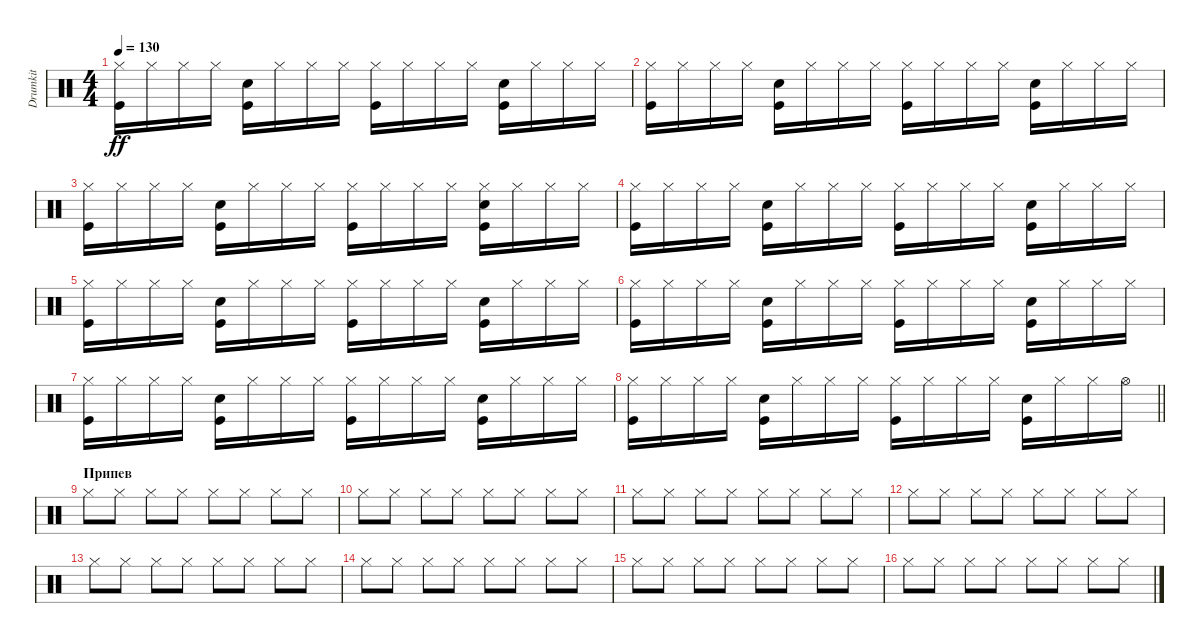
\track ("Drumkit" "Drumkit") {instrument percussion}
\staff {score}
\articulation defaults
\ts (4 4)
\tempo 130
\clef neutral
\ks c
("Hi-Hat (closed)" "Kick (hit)").16{dy ff} "Hi-Hat (closed)".16 "Hi-Hat (closed)".16 "Hi-Hat (closed)".16 ("Kick (hit)" "Snare (hit) 2").16 "Hi-Hat (closed)".16 "Hi-Hat (closed)".16 "Hi-Hat (closed)".16 ("Hi-Hat (closed)" "Kick (hit)").16 "Hi-Hat (closed)".16 "Hi-Hat (closed)".16 "Hi-Hat (closed)".16 ("Kick (hit)" "Snare (hit) 2").16 "Hi-Hat (closed)".16 "Hi-Hat (closed)".16 "Hi-Hat (closed)".16 |
("Hi-Hat (closed)" "Kick (hit)").16 "Hi-Hat (closed)".16 "Hi-Hat (closed)".16 "Hi-Hat (closed)".16 ("Kick (hit)" "Snare (hit) 2").16 "Hi-Hat (closed)".16 "Hi-Hat (closed)".16 "Hi-Hat (closed)".16 ("Hi-Hat (closed)" "Kick (hit)").16 "Hi-Hat (closed)".16 "Hi-Hat (closed)".16 "Hi-Hat (closed)".16 ("Snare (hit) 2" "Kick (hit)").16 "Hi-Hat (closed)".16 "Hi-Hat (closed)".16 "Hi-Hat (closed)".16 |
("Hi-Hat (closed)" "Kick (hit)").16 "Hi-Hat (closed)".16 "Hi-Hat (closed)".16 "Hi-Hat (closed)".16 ("Kick (hit)" "Snare (hit) 2").16 "Hi-Hat (closed)".16 "Hi-Hat (closed)".16 "Hi-Hat (closed)".16 ("Hi-Hat (closed)" "Kick (hit)").16 "Hi-Hat (closed)".16 "Hi-Hat (closed)".16 "Hi-Hat (closed)".16 ("Hi-Hat (closed)" "Kick (hit)" "Snare (hit) 2").16 "Hi-Hat (closed)".16 "Hi-Hat (closed)".16 "Hi-Hat (closed)".16 |
("Hi-Hat (closed)" "Kick (hit)").16 "Hi-Hat (closed)".16 "Hi-Hat (closed)".16 "Hi-Hat (closed)".16 ("Kick (hit)" "Snare (hit) 2").16 "Hi-Hat (closed)".16 "Hi-Hat (closed)".16 "Hi-Hat (closed)".16 ("Hi-Hat (closed)" "Kick (hit)").16 "Hi-Hat (closed)".16 "Hi-Hat (closed)".16 "Hi-Hat (closed)".16 ("Snare (hit) 2" "Kick (hit)").16 "Hi-Hat (closed)".16 "Hi-Hat (closed)".16 "Hi-Hat (closed)".16 |
("Hi-Hat (closed)" "Kick (hit)").16 "Hi-Hat (closed)".16 "Hi-Hat (closed)".16 "Hi-Hat (closed)".16 ("Kick (hit)" "Snare (hit) 2").16 "Hi-Hat (closed)".16 "Hi-Hat (closed)".16 "Hi-Hat (closed)".16 ("Hi-Hat (closed)" "Kick (hit)").16 "Hi-Hat (closed)".16 "Hi-Hat (closed)".16 "Hi-Hat (closed)".16 ("Kick (hit)" "Snare (hit) 2").16 "Hi-Hat (closed)".16 "Hi-Hat (closed)".16 "Hi-Hat (closed)".16 |
("Hi-Hat (closed)" "Kick (hit)").16 "Hi-Hat (closed)".16 "Hi-Hat (closed)".16 "Hi-Hat (closed)".16 ("Kick (hit)" "Snare (hit) 2").16 "Hi-Hat (closed)".16 "Hi-Hat (closed)".16 "Hi-Hat (closed)".16 ("Hi-Hat (closed)" "Kick (hit)").16 "Hi-Hat (closed)".16 "Hi-Hat (closed)".16 "Hi-Hat (closed)".16 ("Snare (hit) 2" "Kick (hit)").16 "Hi-Hat (closed)".16 "Hi-Hat (closed)".16 "Hi-Hat (closed)".16 |
("Hi-Hat (closed)" "Kick (hit)").16 "Hi-Hat (closed)".16 "Hi-Hat (closed)".16 "Hi-Hat (closed)".16 ("Kick (hit)" "Snare (hit) 2").16 "Hi-Hat (closed)".16 "Hi-Hat (closed)".16 "Hi-Hat (closed)".16 ("Hi-Hat (closed)" "Kick (hit)").16 "Hi-Hat (closed)".16 "Hi-Hat (closed)".16 "Hi-Hat (closed)".16 ("Kick (hit)" "Snare (hit) 2").16 "Hi-Hat (closed)".16 "Hi-Hat (closed)".16 "Hi-Hat (closed)".16 |
\barLineRight lightlight
("Hi-Hat (closed)" "Kick (hit)").16 "Hi-Hat (closed)".16 "Hi-Hat (closed)".16 "Hi-Hat (closed)".16 ("Kick (hit)" "Snare (hit) 2").16 "Hi-Hat (closed)".16 "Hi-Hat (closed)".16 "Hi-Hat (closed)".16 ("Hi-Hat (closed)" "Kick (hit)").16 "Hi-Hat (closed)".16 "Hi-Hat (closed)".16 "Hi-Hat (closed)".16 ("Snare (hit) 2" "Kick (hit)").16 "Hi-Hat (closed)".16 "Hi-Hat (closed)".16 "Hi-Hat (open)".16 |
\section ("" "Припев")
"Hi-Hat (closed)".8{volume 15} "Hi-Hat (closed)".8 "Hi-Hat (closed)".8 "Hi-Hat (closed)".8 "Hi-Hat (closed)".8 "Hi-Hat (closed)".8 "Hi-Hat (closed)".8 "Hi-Hat (closed)".8 |
"Hi-Hat (closed)".8 "Hi-Hat (closed)".8 "Hi-Hat (closed)".8 "Hi-Hat (closed)".8 "Hi-Hat (closed)".8 "Hi-Hat (closed)".8 "Hi-Hat (closed)".8 "Hi-Hat (closed)".8 |
"Hi-Hat (closed)".8 "Hi-Hat (closed)".8 "Hi-Hat (closed)".8 "Hi-Hat (closed)".8 "Hi-Hat (closed)".8 "Hi-Hat (closed)".8 "Hi-Hat (closed)".8 "Hi-Hat (closed)".8 |
"Hi-Hat (closed)".8 "Hi-Hat (closed)".8 "Hi-Hat (closed)".8 "Hi-Hat (closed)".8 "Hi-Hat (closed)".8 "Hi-Hat (closed)".8 "Hi-Hat (closed)".8 "Hi-Hat (closed)".8 |
"Hi-Hat (closed)".8 "Hi-Hat (closed)".8 "Hi-Hat (closed)".8 "Hi-Hat (closed)".8 "Hi-Hat (closed)".8 "Hi-Hat (closed)".8 "Hi-Hat (closed)".8 "Hi-Hat (closed)".8 |
"Hi-Hat (closed)".8 "Hi-Hat (closed)".8 "Hi-Hat (closed)".8 "Hi-Hat (closed)".8 "Hi-Hat (closed)".8 "Hi-Hat (closed)".8 "Hi-Hat (closed)".8 "Hi-Hat (closed)".8 |
"Hi-Hat (closed)".8 "Hi-Hat (closed)".8 "Hi-Hat (closed)".8 "Hi-Hat (closed)".8 "Hi-Hat (closed)".8 "Hi-Hat (closed)".8 "Hi-Hat (closed)".8 "Hi-Hat (closed)".8 |
"Hi-Hat (closed)".8 "Hi-Hat (closed)".8 "Hi-Hat (closed)".8 "Hi-Hat (closed)".8 "Hi-Hat (closed)".8 "Hi-Hat (closed)".8 "Hi-Hat (closed)".8 "Hi-Hat (closed)".8
